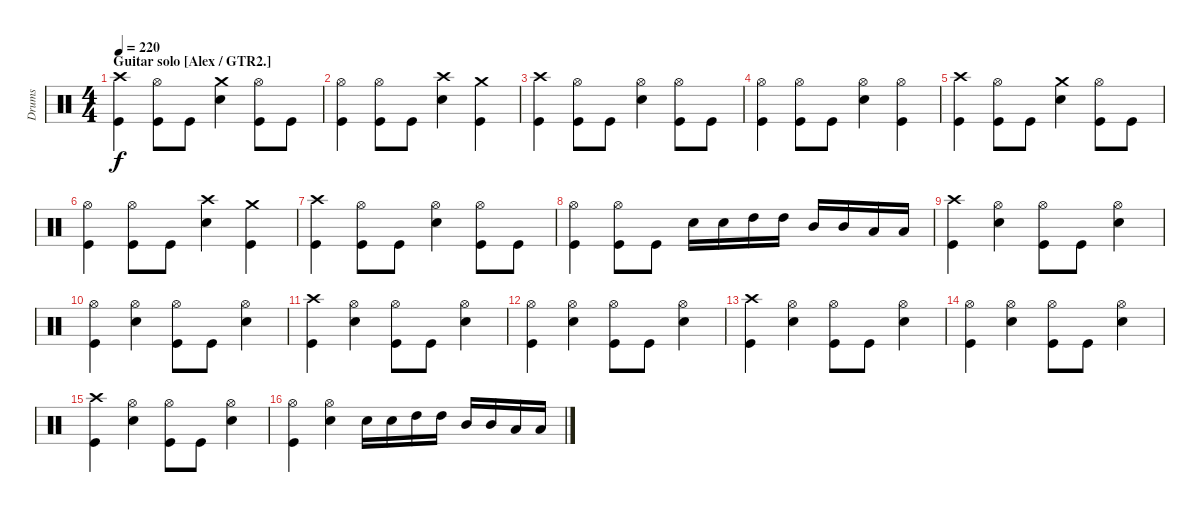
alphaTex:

\track ("Drums" "Drums") {instrument percussion}
\staff {score}
\articulation defaults
\ts (4 4)
\section ("" "Guitar solo [Alex / GTR2.]")
\tempo 220
\clef neutral
\ks c
("Crash high (hit)" "Kick (hit)").4{dy f} ("Hi-Hat (open)" "Kick (hit)").8 "Kick (hit)".8 ("Crash medium (hit)" "Snare (hit) 2").4 ("Hi-Hat (open)" "Kick (hit)").8 "Kick (hit)".8 |
("Hi-Hat (open)" "Kick (hit)").4 ("Hi-Hat (open)" "Kick (hit)").8 "Kick (hit)".8 ("Crash high (hit)" "Snare (hit) 2").4 ("Crash medium (hit)" "Kick (hit)").4 |
("Crash high (hit)" "Kick (hit)").4 ("Hi-Hat (open)" "Kick (hit)").8 "Kick (hit)".8 ("Hi-Hat (open)" "Snare (hit) 2").4 ("Hi-Hat (open)" "Kick (hit)").8 "Kick (hit)".8 |
("Hi-Hat (open)" "Kick (hit)").4 ("Hi-Hat (open)" "Kick (hit)").8 "Kick (hit)".8 ("Hi-Hat (open)" "Snare (hit) 2").4 ("Hi-Hat (open)" "Kick (hit)").4 |
("Crash high (hit)" "Kick (hit)").4 ("Hi-Hat (open)" "Kick (hit)").8 "Kick (hit)".8 ("Crash medium (hit)" "Snare (hit) 2").4 ("Hi-Hat (open)" "Kick (hit)").8 "Kick (hit)".8 |
("Hi-Hat (open)" "Kick (hit)").4 ("Hi-Hat (open)" "Kick (hit)").8 "Kick (hit)".8 ("Crash high (hit)" "Snare (hit) 2").4 ("Crash medium (hit)" "Kick (hit)").4 |
("Crash high (hit)" "Kick (hit)").4 ("Hi-Hat (open)" "Kick (hit)").8 "Kick (hit)".8 ("Hi-Hat (open)" "Snare (hit) 2").4 ("Hi-Hat (open)" "Kick (hit)").8 "Kick (hit)".8 |
("Hi-Hat (open)" "Kick (hit)").4 ("Hi-Hat (open)" "Kick (hit)").8 "Kick (hit)".8 "Snare (hit) 2".16 "Snare (hit) 2".16 "High Tom (hit)".16 "High Tom (hit)".16 "Mid Tom (hit)".16 "Mid Tom (hit)".16 "Low Tom (hit)".16 "Low Tom (hit)".16 |
("Crash high (hit)" "Kick (hit)").4 ("Hi-Hat (open)" "Snare (hit) 2").4 ("Hi-Hat (open)" "Kick (hit)").8 "Kick (hit)".8 ("Hi-Hat (open)" "Snare (hit) 2").4 |
("Hi-Hat (open)" "Kick (hit)").4 ("Hi-Hat (open)" "Snare (hit) 2").4 ("Hi-Hat (open)" "Kick (hit)").8 "Kick (hit)".8 ("Hi-Hat (open)" "Snare (hit) 2").4 |
("Crash high (hit)" "Kick (hit)").4 ("Hi-Hat (open)" "Snare (hit) 2").4 ("Hi-Hat (open)" "Kick (hit)").8 "Kick (hit)".8 ("Hi-Hat (open)" "Snare (hit) 2").4 |
("Hi-Hat (open)" "Kick (hit)").4 ("Hi-Hat (open)" "Snare (hit) 2").4 ("Hi-Hat (open)" "Kick (hit)").8 "Kick (hit)".8 ("Hi-Hat (open)" "Snare (hit) 2").4 |
("Crash high (hit)" "Kick (hit)").4 ("Hi-Hat (open)" "Snare (hit) 2").4 ("Hi-Hat (open)" "Kick (hit)").8 "Kick (hit)".8 ("Hi-Hat (open)" "Snare (hit) 2").4 |
("Hi-Hat (open)" "Kick (hit)").4 ("Hi-Hat (open)" "Snare (hit) 2").4 ("Hi-Hat (open)" "Kick (hit)").8 "Kick (hit)".8 ("Hi-Hat (open)" "Snare (hit) 2").4 |
("Crash high (hit)" "Kick (hit)").4 ("Hi-Hat (open)" "Snare (hit) 2").4 ("Hi-Hat (open)" "Kick (hit)").8 "Kick (hit)".8 ("Hi-Hat (open)" "Snare (hit) 2").4 |
("Hi-Hat (open)" "Kick (hit)").4 ("Hi-Hat (open)" "Snare (hit) 2").4 "Snare (hit) 2".16 "Snare (hit) 2".16 "High Tom (hit)".16 "High Tom (hit)".16 "Mid Tom (hit)".16 "Mid Tom (hit)".16 "Low Tom (hit)".16 "Low Tom (hit)".16
